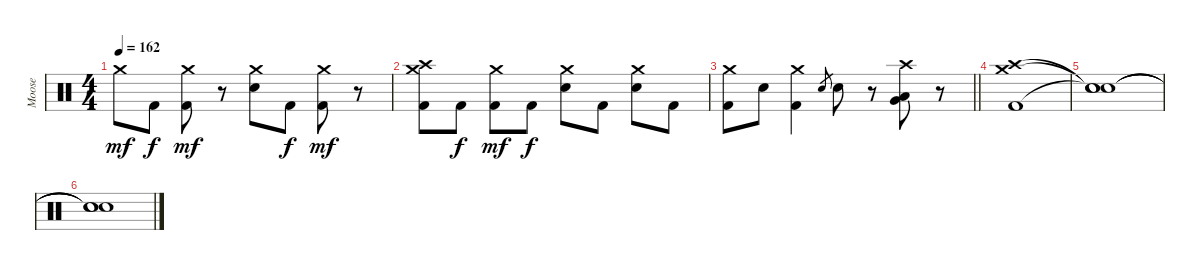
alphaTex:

\track ("Moose" "Moose") {instrument percussion}
\staff {score}
\articulation defaults
\ts (4 4)
\tempo 162
\clef neutral
\ks c "Crash medium (hit)".8{dy mf} "Kick (hit) 2".8{dy f}
("Kick (hit) 2" "Crash medium (hit)").8{dy mf} r.8 ("Snare (hit) 2" "Crash medium (hit)").8 "Kick (hit) 2".8{dy f} ("Kick (hit) 2" "Crash medium (hit)").8{dy mf} r.8 |
("Kick (hit) 2" "Crash high (hit)" "Crash medium (hit)").8 "Kick (hit) 2".8{dy f} ("Kick (hit) 2" "Crash medium (hit)").8{dy mf} "Kick (hit) 2".8{dy f} ("Crash medium (hit)" "Snare (hit) 2").8 "Kick (hit) 2".8 ("Crash medium (hit)" "Snare (hit) 2").8 "Kick (hit) 2".8 |
\barLineRight lightlight
("Crash medium (hit)" "Kick (hit) 2").8 "Snare (hit) 2".8 ("Crash medium (hit)" "Kick (hit) 2").4 "Snare (hit) 2".8{gr} "Snare (hit) 2".8 r.8 ("Crash high (hit)" "Very Low Tom (hit)" "Low Floor Tom (hit)").8 r.8 |
("Crash high (hit)" "Crash medium (hit)" "Kick (hit) 2").1 |
("Snare (hit)"{t} "Snare (hit)"{t} "Snare (hit)"{t}).1 |
("Snare (hit)"{t} "Snare (hit)"{t} "Snare (hit)"{t}).1
